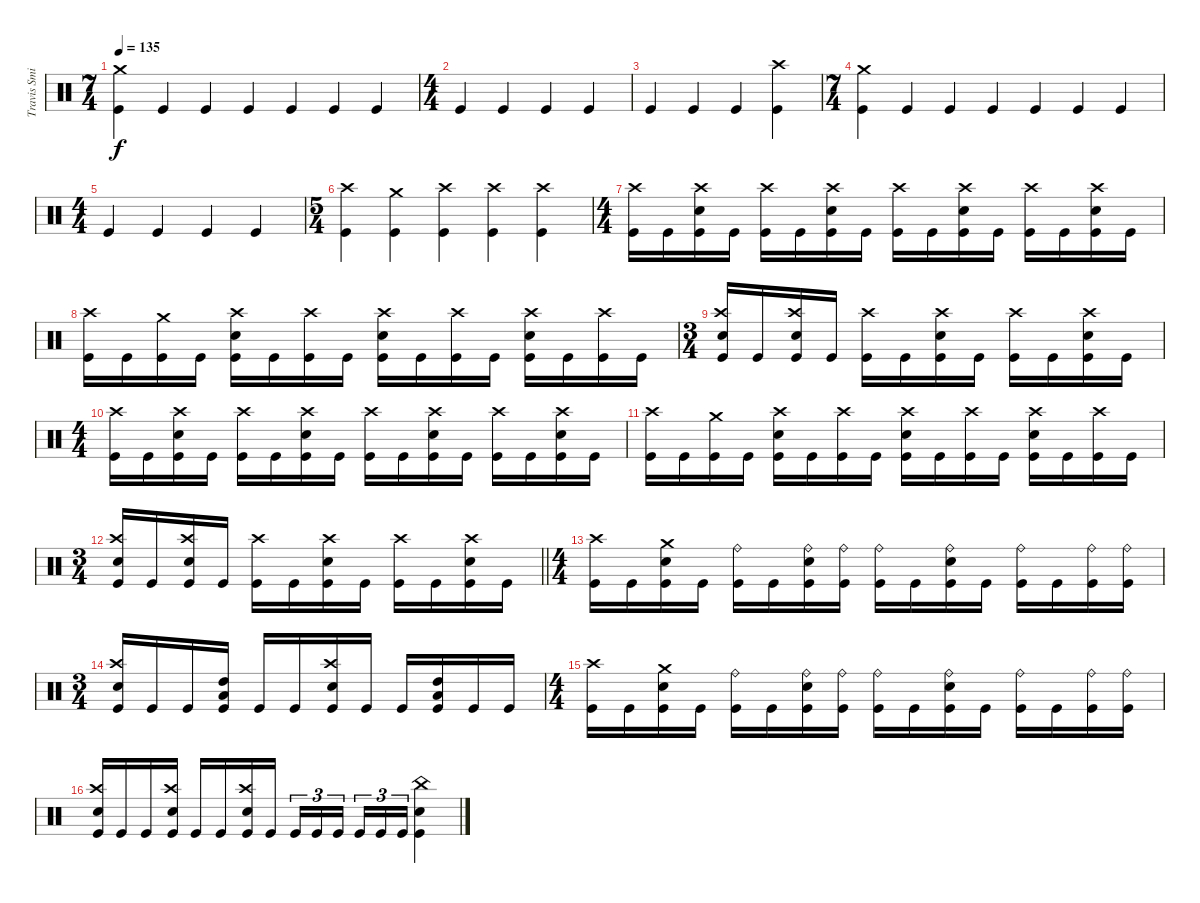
\track ("Travis Smith" "Travis Smi") {instrument percussion}
\staff {score}
\articulation defaults
\ts (7 4)
\section ("" "")
\tempo 135
\clef neutral
\ks c
("Crash medium (hit)" "Kick (hit)").4{dy f} "Kick (hit)".4 "Kick (hit)".4 "Kick (hit)".4 "Kick (hit)".4 "Kick (hit)".4 "Kick (hit)".4 |
\ts (4 4)
"Kick (hit)".4 "Kick (hit)".4 "Kick (hit)".4 "Kick (hit)".4 |
"Kick (hit)".4 "Kick (hit)".4 "Kick (hit)".4 ("Crash high (hit)" "Kick (hit)").4 |
\ts (7 4)
("Crash medium (hit)" "Kick (hit)").4 "Kick (hit)".4 "Kick (hit)".4 "Kick (hit)".4 "Kick (hit)".4 "Kick (hit)".4 "Kick (hit)".4 |
\ts (4 4)
"Kick (hit)".4 "Kick (hit)".4 "Kick (hit)".4 "Kick (hit)".4 |
\ts (5 4)
("Crash high (hit)" "Kick (hit)").4 ("Crash medium (hit)" "Kick (hit)").4 ("Crash high (hit)" "Kick (hit)").4 ("Crash high (hit)" "Kick (hit)").4 ("Crash high (hit)" "Kick (hit)").4 |
\ts (4 4)
("Crash high (hit)" "Kick (hit)").16 "Kick (hit)".16 ("Crash high (hit)" "Electric Snare (hit)" "Kick (hit)").16 "Kick (hit)".16 ("Crash high (hit)" "Kick (hit)").16 "Kick (hit)".16 ("Crash high (hit)" "Electric Snare (hit)" "Kick (hit)").16 "Kick (hit)".16 ("Crash high (hit)" "Kick (hit)").16 "Kick (hit)".16 ("Crash high (hit)" "Electric Snare (hit)" "Kick (hit)").16 "Kick (hit)".16 ("Crash high (hit)" "Kick (hit)").16 "Kick (hit)".16 ("Crash high (hit)" "Electric Snare (hit)" "Kick (hit)").16 "Kick (hit)".16 |
("Crash high (hit)" "Kick (hit)").16 "Kick (hit)".16 ("Crash medium (hit)" "Kick (hit)").16 "Kick (hit)".16 ("Crash high (hit)" "Electric Snare (hit)" "Kick (hit)").16 "Kick (hit)".16 ("Crash high (hit)" "Kick (hit)").16 "Kick (hit)".16 ("Crash high (hit)" "Electric Snare (hit)" "Kick (hit)").16 "Kick (hit)".16 ("Crash high (hit)" "Kick (hit)").16 "Kick (hit)".16 ("Crash high (hit)" "Electric Snare (hit)" "Kick (hit)").16 "Kick (hit)".16 ("Crash high (hit)" "Kick (hit)").16 "Kick (hit)".16 |
\ts (3 4)
("Crash high (hit)" "Electric Snare (hit)" "Kick (hit)").16 "Kick (hit)".16 ("Crash high (hit)" "Electric Snare (hit)" "Kick (hit)").16 "Kick (hit)".16 ("Crash high (hit)" "Kick (hit)").16 "Kick (hit)".16 ("Crash high (hit)" "Electric Snare (hit)" "Kick (hit)").16 "Kick (hit)".16 ("Crash high (hit)" "Kick (hit)").16 "Kick (hit)".16 ("Crash high (hit)" "Electric Snare (hit)" "Kick (hit)").16 "Kick (hit)".16 |
\ts (4 4)
("Crash high (hit)" "Kick (hit)").16 "Kick (hit)".16 ("Crash high (hit)" "Electric Snare (hit)" "Kick (hit)").16 "Kick (hit)".16 ("Crash high (hit)" "Kick (hit)").16 "Kick (hit)".16 ("Crash high (hit)" "Electric Snare (hit)" "Kick (hit)").16 "Kick (hit)".16 ("Crash high (hit)" "Kick (hit)").16 "Kick (hit)".16 ("Crash high (hit)" "Electric Snare (hit)" "Kick (hit)").16 "Kick (hit)".16 ("Crash high (hit)" "Kick (hit)").16 "Kick (hit)".16 ("Crash high (hit)" "Electric Snare (hit)" "Kick (hit)").16 "Kick (hit)".16 |
("Crash high (hit)" "Kick (hit)").16 "Kick (hit)".16 ("Crash medium (hit)" "Kick (hit)").16 "Kick (hit)".16 ("Crash high (hit)" "Electric Snare (hit)" "Kick (hit)").16 "Kick (hit)".16 ("Crash high (hit)" "Kick (hit)").16 "Kick (hit)".16 ("Crash high (hit)" "Electric Snare (hit)" "Kick (hit)").16 "Kick (hit)".16 ("Crash high (hit)" "Kick (hit)").16 "Kick (hit)".16 ("Crash high (hit)" "Electric Snare (hit)" "Kick (hit)").16 "Kick (hit)".16 ("Crash high (hit)" "Kick (hit)").16 "Kick (hit)".16 |
\ts (3 4)
\barLineRight lightlight
("Crash high (hit)" "Electric Snare (hit)" "Kick (hit)").16 "Kick (hit)".16 ("Crash high (hit)" "Electric Snare (hit)" "Kick (hit)").16 "Kick (hit)".16 ("Crash high (hit)" "Kick (hit)").16 "Kick (hit)".16 ("Crash high (hit)" "Electric Snare (hit)" "Kick (hit)").16 "Kick (hit)".16 ("Crash high (hit)" "Kick (hit)").16 "Kick (hit)".16 ("Crash high (hit)" "Electric Snare (hit)" "Kick (hit)").16 "Kick (hit)".16 |
\ts (4 4)
\section ("" "")
("Crash high (hit)" "Kick (hit)").16 "Kick (hit)".16 ("Crash medium (hit)" "Electric Snare (hit)" "Kick (hit)").16 "Kick (hit)".16 ("Ride (bell)" "Kick (hit)").16 "Kick (hit)".16 ("Ride (bell)" "Electric Snare (hit)" "Kick (hit)").16 ("Ride (bell)" "Kick (hit)").16 ("Ride (bell)" "Kick (hit)").16 "Kick (hit)".16 ("Ride (bell)" "Electric Snare (hit)" "Kick (hit)").16 "Kick (hit)".16 ("Ride (bell)" "Kick (hit)").16 "Kick (hit)".16 ("Ride (bell)" "Kick (hit)").16 ("Ride (bell)" "Kick (hit)").16 |
\ts (3 4)
("Crash high (hit)" "Electric Snare (hit)" "Kick (hit)").16 "Kick (hit)".16 "Kick (hit)".16 ("High Tom (hit)" "Low Tom (hit)" "Kick (hit)").16 "Kick (hit)".16 "Kick (hit)".16 ("Crash high (hit)" "Electric Snare (hit)" "Kick (hit)").16 "Kick (hit)".16 "Kick (hit)".16 ("High Tom (hit)" "Low Tom (hit)" "Kick (hit)").16 "Kick (hit)".16 "Kick (hit)".16 |
\ts (4 4)
("Crash high (hit)" "Kick (hit)").16 "Kick (hit)".16 ("Crash medium (hit)" "Electric Snare (hit)" "Kick (hit)").16 "Kick (hit)".16 ("Ride (bell)" "Kick (hit)").16 "Kick (hit)".16 ("Ride (bell)" "Electric Snare (hit)" "Kick (hit)").16 ("Ride (bell)" "Kick (hit)").16 ("Ride (bell)" "Kick (hit)").16 "Kick (hit)".16 ("Ride (bell)" "Electric Snare (hit)" "Kick (hit)").16 "Kick (hit)".16 ("Ride (bell)" "Kick (hit)").16 "Kick (hit)".16 ("Ride (bell)" "Kick (hit)").16 ("Ride (bell)" "Kick (hit)").16 |
("Crash high (hit)" "Electric Snare (hit)" "Kick (hit)").16 "Kick (hit)".16 "Kick (hit)".16 ("Crash high (hit)" "Electric Snare (hit)" "Kick (hit)").16 "Kick (hit)".16 "Kick (hit)".16 ("Crash high (hit)" "Electric Snare (hit)" "Kick (hit)").16 "Kick (hit)".16 "Kick (hit)".16{tu (3 2)} "Kick (hit)".16{tu (3 2)} "Kick (hit)".16{tu (3 2)} "Kick (hit)".16{tu (3 2)} "Kick (hit)".16{tu (3 2)} "Kick (hit)".16{tu (3 2)} ("China (hit)" "Electric Snare (hit)" "Kick (hit)").4
